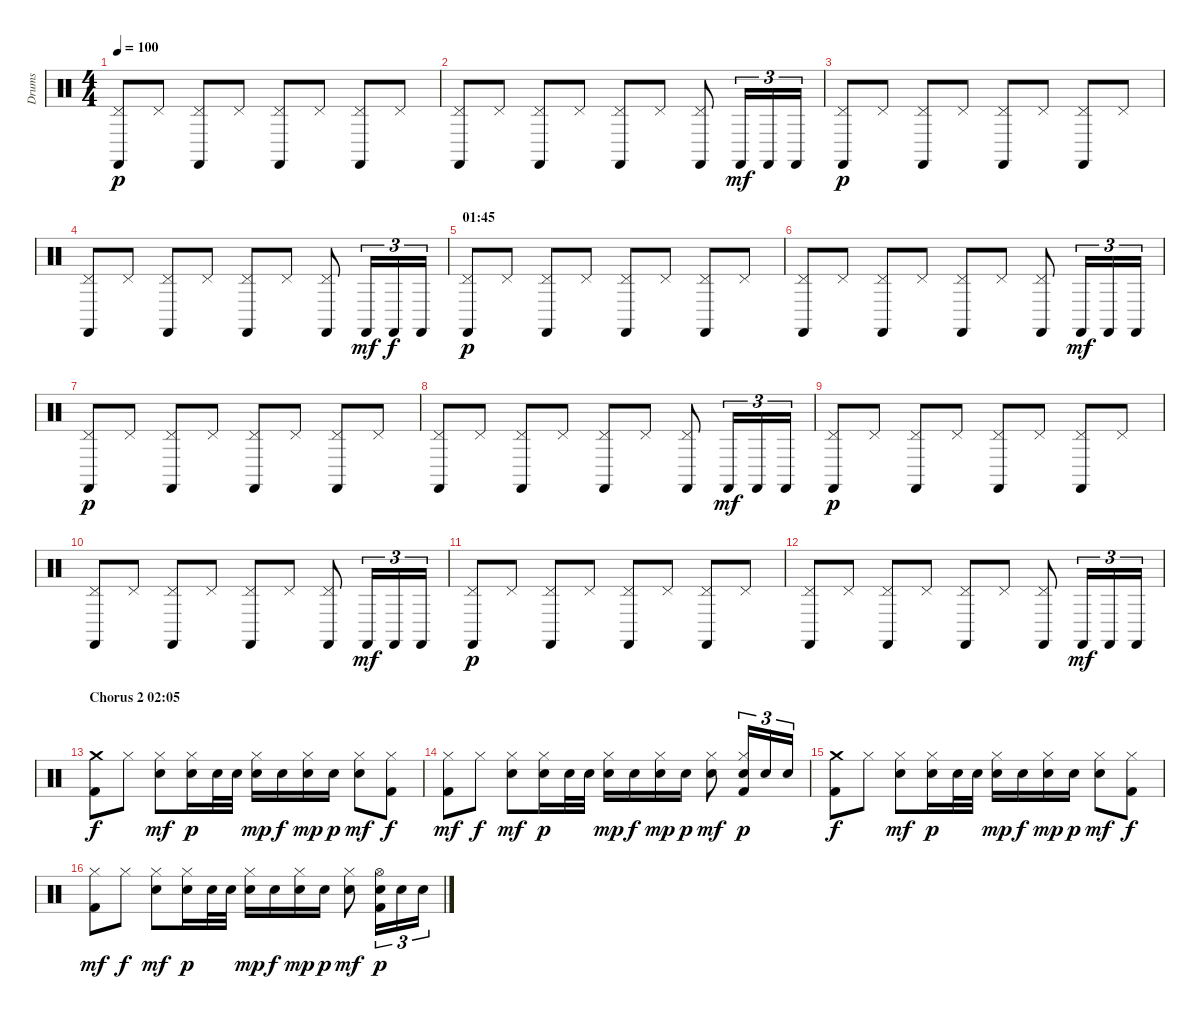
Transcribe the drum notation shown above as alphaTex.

\track ("Drums" "Drums") {instrument percussion}
\staff {score}
\articulation defaults
\ts (4 4)
\tempo 100
\clef neutral
\ks c
("Castanets (hit)" "Pedal Hi-Hat (hit)").8{dy p} "Pedal Hi-Hat (hit)".8 ("Castanets (hit)" "Pedal Hi-Hat (hit)").8 "Pedal Hi-Hat (hit)".8 ("Castanets (hit)" "Pedal Hi-Hat (hit)").8 "Pedal Hi-Hat (hit)".8 ("Castanets (hit)" "Pedal Hi-Hat (hit)").8 "Pedal Hi-Hat (hit)".8 |
("Castanets (hit)" "Pedal Hi-Hat (hit)").8 "Pedal Hi-Hat (hit)".8 ("Castanets (hit)" "Pedal Hi-Hat (hit)").8 "Pedal Hi-Hat (hit)".8 ("Castanets (hit)" "Pedal Hi-Hat (hit)").8 "Pedal Hi-Hat (hit)".8 ("Castanets (hit)" "Pedal Hi-Hat (hit)").8 "Castanets (hit)".16{tu (3 2) dy mf} "Castanets (hit)".16{tu (3 2)} "Castanets (hit)".16{tu (3 2)} |
("Castanets (hit)" "Pedal Hi-Hat (hit)").8{dy p} "Pedal Hi-Hat (hit)".8 ("Castanets (hit)" "Pedal Hi-Hat (hit)").8 "Pedal Hi-Hat (hit)".8 ("Castanets (hit)" "Pedal Hi-Hat (hit)").8 "Pedal Hi-Hat (hit)".8 ("Castanets (hit)" "Pedal Hi-Hat (hit)").8 "Pedal Hi-Hat (hit)".8 |
("Castanets (hit)" "Pedal Hi-Hat (hit)").8 "Pedal Hi-Hat (hit)".8 ("Castanets (hit)" "Pedal Hi-Hat (hit)").8 "Pedal Hi-Hat (hit)".8 ("Castanets (hit)" "Pedal Hi-Hat (hit)").8 "Pedal Hi-Hat (hit)".8 ("Castanets (hit)" "Pedal Hi-Hat (hit)").8 "Castanets (hit)".16{tu (3 2) dy mf} "Castanets (hit)".16{tu (3 2) dy f} "Castanets (hit)".16{tu (3 2)} |
\section ("" "01:45")
("Castanets (hit)" "Pedal Hi-Hat (hit)").8{dy p} "Pedal Hi-Hat (hit)".8 ("Castanets (hit)" "Pedal Hi-Hat (hit)").8 "Pedal Hi-Hat (hit)".8 ("Castanets (hit)" "Pedal Hi-Hat (hit)").8 "Pedal Hi-Hat (hit)".8 ("Castanets (hit)" "Pedal Hi-Hat (hit)").8 "Pedal Hi-Hat (hit)".8 |
("Castanets (hit)" "Pedal Hi-Hat (hit)").8 "Pedal Hi-Hat (hit)".8 ("Castanets (hit)" "Pedal Hi-Hat (hit)").8 "Pedal Hi-Hat (hit)".8 ("Castanets (hit)" "Pedal Hi-Hat (hit)").8 "Pedal Hi-Hat (hit)".8 ("Castanets (hit)" "Pedal Hi-Hat (hit)").8 "Castanets (hit)".16{tu (3 2) dy mf} "Castanets (hit)".16{tu (3 2)} "Castanets (hit)".16{tu (3 2)} |
("Castanets (hit)" "Pedal Hi-Hat (hit)").8{dy p} "Pedal Hi-Hat (hit)".8 ("Castanets (hit)" "Pedal Hi-Hat (hit)").8 "Pedal Hi-Hat (hit)".8 ("Castanets (hit)" "Pedal Hi-Hat (hit)").8 "Pedal Hi-Hat (hit)".8 ("Castanets (hit)" "Pedal Hi-Hat (hit)").8 "Pedal Hi-Hat (hit)".8 |
("Castanets (hit)" "Pedal Hi-Hat (hit)").8 "Pedal Hi-Hat (hit)".8 ("Castanets (hit)" "Pedal Hi-Hat (hit)").8 "Pedal Hi-Hat (hit)".8 ("Castanets (hit)" "Pedal Hi-Hat (hit)").8 "Pedal Hi-Hat (hit)".8 ("Castanets (hit)" "Pedal Hi-Hat (hit)").8 "Castanets (hit)".16{tu (3 2) dy mf} "Castanets (hit)".16{tu (3 2)} "Castanets (hit)".16{tu (3 2)} |
("Castanets (hit)" "Pedal Hi-Hat (hit)").8{dy p} "Pedal Hi-Hat (hit)".8 ("Castanets (hit)" "Pedal Hi-Hat (hit)").8 "Pedal Hi-Hat (hit)".8 ("Castanets (hit)" "Pedal Hi-Hat (hit)").8 "Pedal Hi-Hat (hit)".8 ("Castanets (hit)" "Pedal Hi-Hat (hit)").8 "Pedal Hi-Hat (hit)".8 |
("Castanets (hit)" "Pedal Hi-Hat (hit)").8 "Pedal Hi-Hat (hit)".8 ("Castanets (hit)" "Pedal Hi-Hat (hit)").8 "Pedal Hi-Hat (hit)".8 ("Castanets (hit)" "Pedal Hi-Hat (hit)").8 "Pedal Hi-Hat (hit)".8 ("Castanets (hit)" "Pedal Hi-Hat (hit)").8 "Castanets (hit)".16{tu (3 2) dy mf} "Castanets (hit)".16{tu (3 2)} "Castanets (hit)".16{tu (3 2)} |
("Castanets (hit)" "Pedal Hi-Hat (hit)").8{dy p} "Pedal Hi-Hat (hit)".8 ("Castanets (hit)" "Pedal Hi-Hat (hit)").8 "Pedal Hi-Hat (hit)".8 ("Castanets (hit)" "Pedal Hi-Hat (hit)").8 "Pedal Hi-Hat (hit)".8 ("Castanets (hit)" "Pedal Hi-Hat (hit)").8 "Pedal Hi-Hat (hit)".8 |
("Castanets (hit)" "Pedal Hi-Hat (hit)").8 "Pedal Hi-Hat (hit)".8 ("Castanets (hit)" "Pedal Hi-Hat (hit)").8 "Pedal Hi-Hat (hit)".8 ("Castanets (hit)" "Pedal Hi-Hat (hit)").8 "Pedal Hi-Hat (hit)".8 ("Castanets (hit)" "Pedal Hi-Hat (hit)").8 "Castanets (hit)".16{tu (3 2) dy mf} "Castanets (hit)".16{tu (3 2)} "Castanets (hit)".16{tu (3 2)} |
\section ("" "Chorus 2 02:05")
("Crash medium (hit)" "Kick (hit) 2").8{dy f} "Hi-Hat (closed)".8 ("Hi-Hat (closed)" "Electric Snare (hit)").8{dy mf} ("Hi-Hat (closed)" "Electric Snare (hit)").16{dy p} "Electric Snare (hit)".32 "Electric Snare (hit)".32 ("Hi-Hat (closed)" "Electric Snare (hit)").16{dy mp} "Electric Snare (hit)".16{dy f} ("Hi-Hat (closed)" "Electric Snare (hit)").16{dy mp} "Electric Snare (hit)".16{dy p} ("Hi-Hat (closed)" "Electric Snare (hit)").8{dy mf} ("Hi-Hat (closed)" "Kick (hit) 2").8{dy f} |
("Hi-Hat (closed)" "Kick (hit) 2").8{dy mf} "Hi-Hat (closed)".8{dy f} ("Hi-Hat (closed)" "Electric Snare (hit)").8{dy mf} ("Hi-Hat (closed)" "Electric Snare (hit)").16{dy p} "Electric Snare (hit)".32 "Electric Snare (hit)".32 ("Hi-Hat (closed)" "Electric Snare (hit)").16{dy mp} "Electric Snare (hit)".16{dy f} ("Hi-Hat (closed)" "Electric Snare (hit)").16{dy mp} "Electric Snare (hit)".16{dy p} ("Hi-Hat (closed)" "Electric Snare (hit)").8{dy mf} ("Hi-Hat (closed)" "Electric Snare (hit)" "Kick (hit) 2").16{tu (3 2) dy p} "Electric Snare (hit)".16{tu (3 2)} "Electric Snare (hit)".16{tu (3 2)} |
("Crash medium (hit)" "Kick (hit) 2").8{dy f} "Hi-Hat (closed)".8 ("Hi-Hat (closed)" "Electric Snare (hit)").8{dy mf} ("Hi-Hat (closed)" "Electric Snare (hit)").16{dy p} "Electric Snare (hit)".32 "Electric Snare (hit)".32 ("Hi-Hat (closed)" "Electric Snare (hit)").16{dy mp} "Electric Snare (hit)".16{dy f} ("Hi-Hat (closed)" "Electric Snare (hit)").16{dy mp} "Electric Snare (hit)".16{dy p} ("Hi-Hat (closed)" "Electric Snare (hit)").8{dy mf} ("Hi-Hat (closed)" "Kick (hit) 2").8{dy f} |
("Hi-Hat (closed)" "Kick (hit) 2").8{dy mf} "Hi-Hat (closed)".8{dy f} ("Hi-Hat (closed)" "Electric Snare (hit)").8{dy mf} ("Hi-Hat (closed)" "Electric Snare (hit)").16{dy p} "Electric Snare (hit)".32 "Electric Snare (hit)".32 ("Hi-Hat (closed)" "Electric Snare (hit)").16{dy mp} "Electric Snare (hit)".16{dy f} ("Hi-Hat (closed)" "Electric Snare (hit)").16{dy mp} "Electric Snare (hit)".16{dy p} ("Hi-Hat (closed)" "Electric Snare (hit)").8{dy mf} ("Hi-Hat (open)" "Electric Snare (hit)" "Kick (hit) 2").16{tu (3 2) dy p} "Electric Snare (hit)".16{tu (3 2)} "Electric Snare (hit)".16{tu (3 2)}
